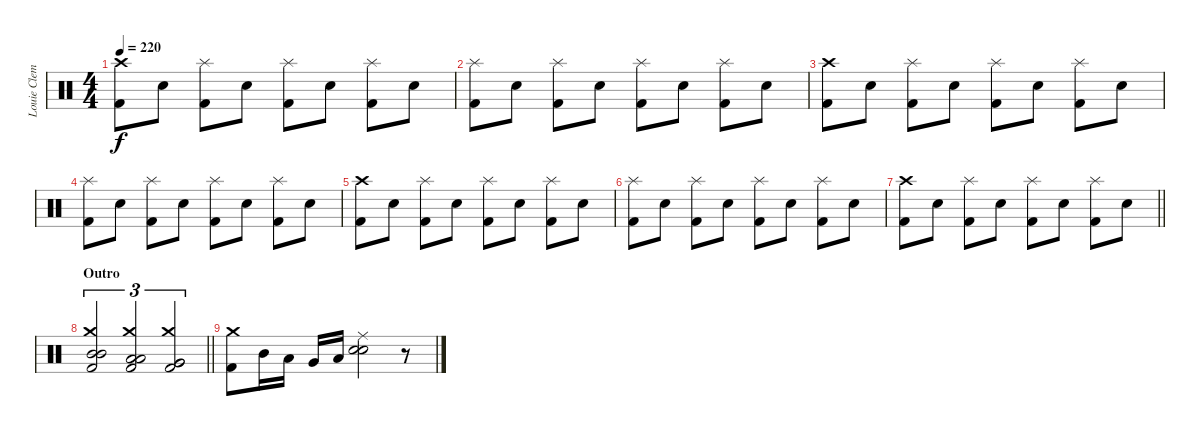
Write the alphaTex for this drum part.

\track ("Louie Clemente (Drums)" "Louie Clem") {instrument percussion}
\staff {score}
\articulation defaults
\ts (4 4)
\tempo 220
\clef neutral
\ks c
("Crash high (hit)" "Kick (hit) 2").8{dy f} "Electric Snare (hit)".8 ("Splash (hit)" "Kick (hit) 2").8 "Electric Snare (hit)".8 ("Splash (hit)" "Kick (hit) 2").8 "Electric Snare (hit)".8 ("Splash (hit)" "Kick (hit) 2").8 "Electric Snare (hit)".8 |
("Splash (hit)" "Kick (hit) 2").8 "Electric Snare (hit)".8 ("Splash (hit)" "Kick (hit) 2").8 "Electric Snare (hit)".8 ("Splash (hit)" "Kick (hit) 2").8 "Electric Snare (hit)".8 ("Splash (hit)" "Kick (hit) 2").8 "Electric Snare (hit)".8 |
("Crash high (hit)" "Kick (hit) 2").8 "Electric Snare (hit)".8 ("Splash (hit)" "Kick (hit) 2").8 "Electric Snare (hit)".8 ("Splash (hit)" "Kick (hit) 2").8 "Electric Snare (hit)".8 ("Splash (hit)" "Kick (hit) 2").8 "Electric Snare (hit)".8 |
("Splash (hit)" "Kick (hit) 2").8 "Electric Snare (hit)".8 ("Splash (hit)" "Kick (hit) 2").8 "Electric Snare (hit)".8 ("Splash (hit)" "Kick (hit) 2").8 "Electric Snare (hit)".8 ("Splash (hit)" "Kick (hit) 2").8 "Electric Snare (hit)".8 |
("Crash high (hit)" "Kick (hit) 2").8 "Electric Snare (hit)".8 ("Splash (hit)" "Kick (hit) 2").8 "Electric Snare (hit)".8 ("Splash (hit)" "Kick (hit) 2").8 "Electric Snare (hit)".8 ("Splash (hit)" "Kick (hit) 2").8 "Electric Snare (hit)".8 |
("Splash (hit)" "Kick (hit) 2").8 "Electric Snare (hit)".8 ("Splash (hit)" "Kick (hit) 2").8 "Electric Snare (hit)".8 ("Splash (hit)" "Kick (hit) 2").8 "Electric Snare (hit)".8 ("Splash (hit)" "Kick (hit) 2").8 "Electric Snare (hit)".8 |
\barLineRight lightlight
("Crash high (hit)" "Kick (hit) 2").8 "Electric Snare (hit)".8 ("Splash (hit)" "Kick (hit) 2").8 "Electric Snare (hit)".8 ("Splash (hit)" "Kick (hit) 2").8 "Electric Snare (hit)".8 ("Splash (hit)" "Kick (hit) 2").8 "Electric Snare (hit)".8 |
\section ("" "Outro")
\barLineRight lightlight
("Crash medium (hit)" "Mid Tom (hit)" "Mid Tom (hit)" "Kick (hit) 2").2{tu (3 2)} ("Crash medium (hit)" "Low Tom (hit)" "Low Tom (hit)" "Kick (hit) 2").2{tu (3 2)} ("Crash medium (hit)" "Very Low Tom (hit)" "Very Low Tom (hit)" "Kick (hit) 2").2{tu (3 2)} |
("Crash medium (hit)" "Kick (hit) 2").8 "Mid Tom (hit)".16 "Low Tom (hit)".16 "Very Low Tom (hit)".16 "Low Floor Tom (hit)".16 ("Electric Snare (hit)" "Electric Snare (hit)" "Ride (middle)").2{bd 480} r.8
